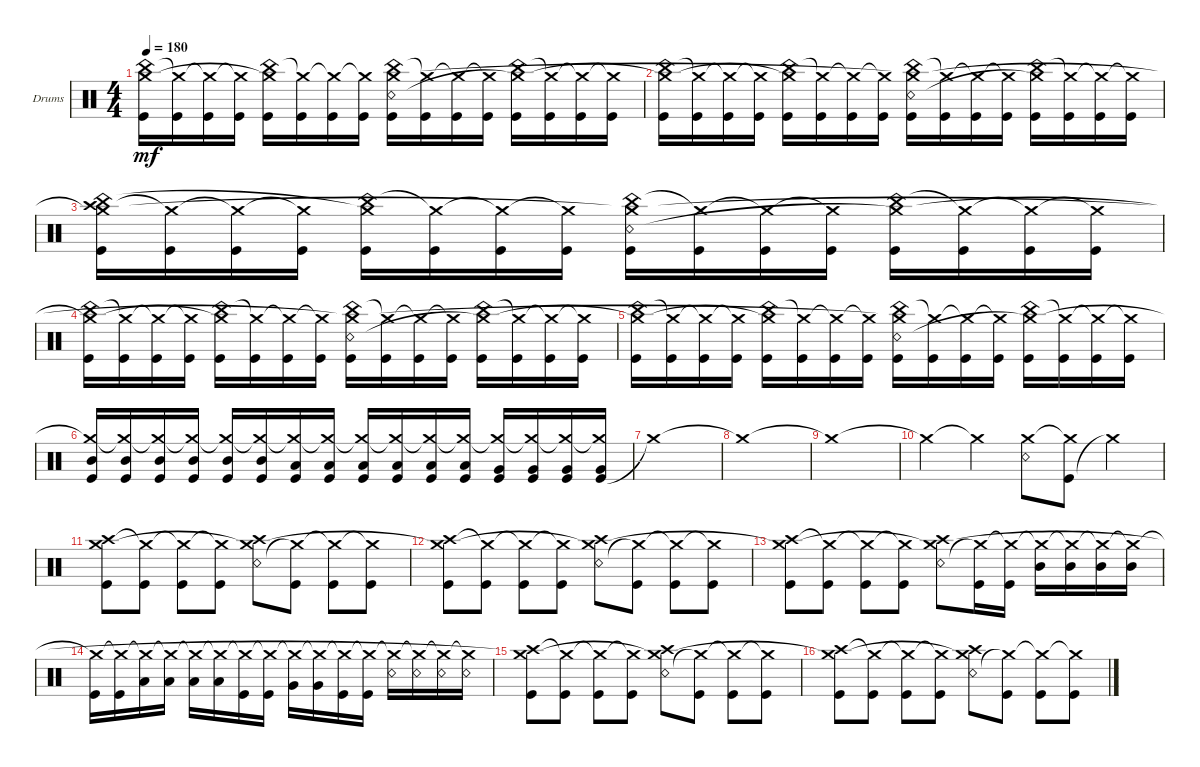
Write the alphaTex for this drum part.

\defaultSystemsLayout 4
\bracketExtendMode groupsimilarinstruments
\firstSystemTrackNameOrientation horizontal
\otherSystemsTrackNameOrientation horizontal
\track ("Drumkit" "Drums") {instrument percussion}
\staff {score}
\articulation defaults
\ts (4 4)
\tempo 180
\clef neutral
\ks c
("Kick (hit)" "China (hit)" "Crash medium (hit)"{t}).16{dy mf} ("Kick (hit)" "Crash medium (hit)"{t}).16 ("Kick (hit)" "Crash medium (hit)"{t}).16 ("Kick (hit)" "Crash medium (hit)"{t}).16 ("Kick (hit)" "China (hit)" "Crash medium (hit)"{t}).16 ("Kick (hit)" "Crash medium (hit)"{t}).16 ("Kick (hit)" "Crash medium (hit)"{t}).16 ("Kick (hit)" "Crash medium (hit)"{t}).16 ("Kick (hit)" "China (hit)" "Snare (rim shot)" "Crash medium (hit)"{t}).16 ("Kick (hit)" "Crash medium (hit)"{t}).16 ("Kick (hit)" "Crash medium (hit)"{t}).16 ("Kick (hit)" "Crash medium (hit)"{t}).16 ("Kick (hit)" "China (hit)" "Crash medium (hit)"{t}).16 ("Kick (hit)" "Crash medium (hit)"{t}).16 ("Kick (hit)" "Crash medium (hit)"{t}).16 ("Kick (hit)" "Crash medium (hit)"{t}).16 |
("Kick (hit)" "China (hit)" "Crash medium (hit)"{t}).16 ("Kick (hit)" "Crash medium (hit)"{t}).16 ("Kick (hit)" "Crash medium (hit)"{t}).16 ("Kick (hit)" "Crash medium (hit)"{t}).16 ("Kick (hit)" "China (hit)" "Crash medium (hit)"{t}).16 ("Kick (hit)" "Crash medium (hit)"{t}).16 ("Kick (hit)" "Crash medium (hit)"{t}).16 ("Kick (hit)" "Crash medium (hit)"{t}).16 ("Kick (hit)" "China (hit)" "Snare (rim shot)" "Crash medium (hit)"{t}).16 ("Kick (hit)" "Crash medium (hit)"{t}).16 ("Kick (hit)" "Crash medium (hit)"{t}).16 ("Kick (hit)" "Crash medium (hit)"{t}).16 ("Kick (hit)" "China (hit)" "Crash medium (hit)"{t}).16 ("Kick (hit)" "Crash medium (hit)"{t}).16 ("Kick (hit)" "Crash medium (hit)"{t}).16 ("Kick (hit)" "Crash medium (hit)"{t}).16 |
("Kick (hit)" "Crash high (hit)" "China (hit)" "Crash medium (hit)"{t}).16 ("Kick (hit)" "Crash medium (hit)"{t}).16 ("Kick (hit)" "Crash medium (hit)"{t}).16 ("Kick (hit)" "Crash medium (hit)"{t}).16 ("Kick (hit)" "China (hit)" "Crash medium (hit)"{t}).16 ("Kick (hit)" "Crash medium (hit)"{t}).16 ("Kick (hit)" "Crash medium (hit)"{t}).16 ("Kick (hit)" "Crash medium (hit)"{t}).16 ("Kick (hit)" "China (hit)" "Snare (rim shot)" "Crash medium (hit)"{t}).16 ("Kick (hit)" "Crash medium (hit)"{t}).16 ("Kick (hit)" "Crash medium (hit)"{t}).16 ("Kick (hit)" "Crash medium (hit)"{t}).16 ("Kick (hit)" "China (hit)" "Crash medium (hit)"{t}).16 ("Kick (hit)" "Crash medium (hit)"{t}).16 ("Kick (hit)" "Crash medium (hit)"{t}).16 ("Kick (hit)" "Crash medium (hit)"{t}).16 |
("Kick (hit)" "China (hit)" "Crash medium (hit)"{t}).16 ("Kick (hit)" "Crash medium (hit)"{t}).16 ("Kick (hit)" "Crash medium (hit)"{t}).16 ("Kick (hit)" "Crash medium (hit)"{t}).16 ("Kick (hit)" "China (hit)" "Crash medium (hit)"{t}).16 ("Kick (hit)" "Crash medium (hit)"{t}).16 ("Kick (hit)" "Crash medium (hit)"{t}).16 ("Kick (hit)" "Crash medium (hit)"{t}).16 ("Kick (hit)" "China (hit)" "Snare (rim shot)" "Crash medium (hit)"{t}).16 ("Kick (hit)" "Crash medium (hit)"{t}).16 ("Kick (hit)" "Crash medium (hit)"{t}).16 ("Kick (hit)" "Crash medium (hit)"{t}).16 ("Kick (hit)" "China (hit)" "Crash medium (hit)"{t}).16 ("Kick (hit)" "Crash medium (hit)"{t}).16 ("Kick (hit)" "Crash medium (hit)"{t}).16 ("Kick (hit)" "Crash medium (hit)"{t}).16 |
("Kick (hit)" "China (hit)" "Crash medium (hit)"{t}).16 ("Kick (hit)" "Crash medium (hit)"{t}).16 ("Kick (hit)" "Crash medium (hit)"{t}).16 ("Kick (hit)" "Crash medium (hit)"{t}).16 ("Kick (hit)" "China (hit)" "Crash medium (hit)"{t}).16 ("Kick (hit)" "Crash medium (hit)"{t}).16 ("Kick (hit)" "Crash medium (hit)"{t}).16 ("Kick (hit)" "Crash medium (hit)"{t}).16 ("Kick (hit)" "China (hit)" "Snare (rim shot)" "Crash medium (hit)"{t}).16 ("Kick (hit)" "Crash medium (hit)"{t}).16 ("Kick (hit)" "Crash medium (hit)"{t}).16 ("Kick (hit)" "Crash medium (hit)"{t}).16 ("Kick (hit)" "China (hit)" "Crash medium (hit)"{t}).16 ("Kick (hit)" "Crash medium (hit)"{t}).16 ("Kick (hit)" "Crash medium (hit)"{t}).16 ("Kick (hit)" "Crash medium (hit)"{t}).16 |
("Kick (hit)" "Mid Tom (hit)" "Crash medium (hit)"{t}).16 ("Kick (hit)" "Mid Tom (hit)" "Crash medium (hit)"{t}).16 ("Kick (hit)" "Mid Tom (hit)" "Crash medium (hit)"{t}).16 ("Kick (hit)" "Mid Tom (hit)" "Crash medium (hit)"{t}).16 ("Kick (hit)" "Mid Tom (hit)" "Crash medium (hit)"{t}).16 ("Kick (hit)" "Mid Tom (hit)" "Crash medium (hit)"{t}).16 ("Kick (hit)" "Low Tom (hit)" "Crash medium (hit)"{t}).16 ("Kick (hit)" "Low Tom (hit)" "Crash medium (hit)"{t}).16 ("Kick (hit)" "Low Tom (hit)" "Crash medium (hit)"{t}).16 ("Kick (hit)" "Low Tom (hit)" "Crash medium (hit)"{t}).16 ("Kick (hit)" "Low Tom (hit)" "Crash medium (hit)"{t}).16 ("Kick (hit)" "Low Tom (hit)" "Crash medium (hit)"{t}).16 ("Kick (hit)" "Very Low Tom (hit)" "Crash medium (hit)"{t}).16 ("Kick (hit)" "Very Low Tom (hit)" "Crash medium (hit)"{t}).16 ("Kick (hit)" "Very Low Tom (hit)" "Crash medium (hit)"{t}).16 ("Kick (hit)" "Very Low Tom (hit)" "Crash medium (hit)"{t}).16 |
"Crash medium (hit)"{t}.1 |
"Crash medium (hit)"{t}.1 |
"Crash medium (hit)"{t}.1 |
"Crash medium (hit)"{t}.4 "Crash medium (hit)"{t}.4 ("Snare (rim shot)" "Crash medium (hit)").8 ("Kick (hit)" "Crash medium (hit)"{t}).8 "Crash medium (hit)"{t}.4 |
("Kick (hit)" "Crash high (hit)" "Crash medium (hit)").8 ("Kick (hit)" "Crash medium (hit)"{t}).8 ("Kick (hit)" "Crash medium (hit)"{t}).8 ("Kick (hit)" "Crash medium (hit)"{t}).8 ("Crash high (hit)" "Snare (rim shot)" "Crash medium (hit)"{t}).8 ("Kick (hit)" "Crash medium (hit)"{t}).8 ("Kick (hit)" "Crash medium (hit)"{t}).8 ("Kick (hit)" "Crash medium (hit)"{t}).8 |
("Kick (hit)" "Crash high (hit)" "Crash medium (hit)"{t}).8 ("Kick (hit)" "Crash medium (hit)"{t}).8 ("Kick (hit)" "Crash medium (hit)"{t}).8 ("Kick (hit)" "Crash medium (hit)"{t}).8 ("Crash high (hit)" "Snare (rim shot)" "Crash medium (hit)"{t}).8 ("Kick (hit)" "Crash medium (hit)"{t}).8 ("Kick (hit)" "Crash medium (hit)"{t}).8 ("Kick (hit)" "Crash medium (hit)"{t}).8 |
("Kick (hit)" "Crash high (hit)" "Crash medium (hit)"{t}).8 ("Kick (hit)" "Crash medium (hit)"{t}).8 ("Kick (hit)" "Crash medium (hit)"{t}).8 ("Kick (hit)" "Crash medium (hit)"{t}).8 ("Crash high (hit)" "Snare (rim shot)" "Crash medium (hit)"{t}).8 ("Kick (hit)" "Crash medium (hit)"{t}).16 ("Kick (hit)" "Crash medium (hit)"{t}).16 ("Mid Tom (hit)" "Crash medium (hit)"{t}).16 ("Mid Tom (hit)" "Crash medium (hit)"{t}).16 ("Mid Tom (hit)" "Crash medium (hit)"{t}).16 ("Mid Tom (hit)" "Crash medium (hit)"{t}).16 |
("Kick (hit)" "Crash medium (hit)"{t}).16 ("Kick (hit)" "Crash medium (hit)"{t}).16 ("Low Tom (hit)" "Crash medium (hit)"{t}).16 ("Low Tom (hit)" "Crash medium (hit)"{t}).16 ("Low Tom (hit)" "Crash medium (hit)"{t}).16 ("Low Tom (hit)" "Crash medium (hit)"{t}).16 ("Kick (hit)" "Crash medium (hit)"{t}).16 ("Kick (hit)" "Crash medium (hit)"{t}).16 ("Very Low Tom (hit)" "Crash medium (hit)"{t}).16 ("Very Low Tom (hit)" "Crash medium (hit)"{t}).16 ("Kick (hit)" "Crash medium (hit)"{t}).16 ("Kick (hit)" "Crash medium (hit)"{t}).16 ("Snare (rim shot)" "Crash medium (hit)"{t}).16 ("Snare (rim shot)" "Crash medium (hit)"{t}).16 ("Snare (rim shot)" "Crash medium (hit)"{t}).16 ("Snare (rim shot)" "Crash medium (hit)"{t}).16 |
("Kick (hit)" "Crash high (hit)" "Crash medium (hit)"{t}).8 ("Kick (hit)" "Crash medium (hit)"{t}).8 ("Kick (hit)" "Crash medium (hit)"{t}).8 ("Kick (hit)" "Crash medium (hit)"{t}).8 ("Crash high (hit)" "Snare (rim shot)" "Crash medium (hit)"{t}).8 ("Kick (hit)" "Crash medium (hit)"{t}).8 ("Kick (hit)" "Crash medium (hit)"{t}).8 ("Kick (hit)" "Crash medium (hit)"{t}).8 |
("Kick (hit)" "Crash high (hit)" "Crash medium (hit)"{t}).8 ("Kick (hit)" "Crash medium (hit)"{t}).8 ("Kick (hit)" "Crash medium (hit)"{t}).8 ("Kick (hit)" "Crash medium (hit)"{t}).8 ("Crash high (hit)" "Snare (rim shot)" "Crash medium (hit)"{t}).8 ("Kick (hit)" "Crash medium (hit)"{t}).8 ("Kick (hit)" "Crash medium (hit)"{t}).8 ("Kick (hit)" "Crash medium (hit)"{t}).8
